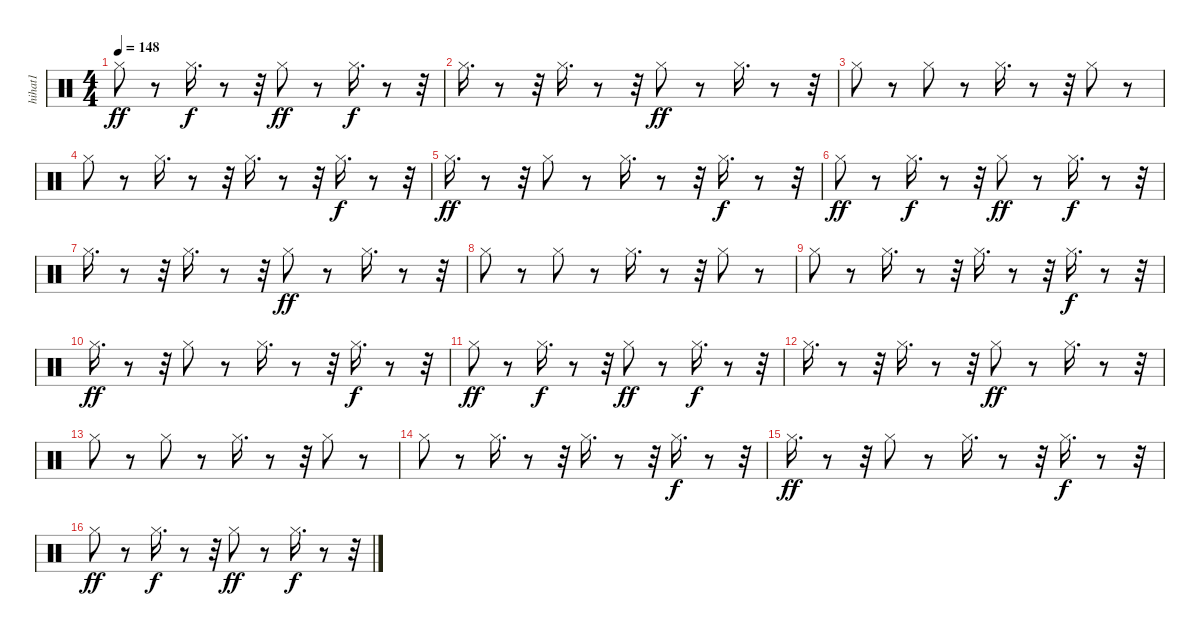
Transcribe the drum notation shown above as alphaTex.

\track ("hihat1              " "hihat1    ") {instrument percussion}
\staff {score}
\articulation defaults
\ts (4 4)
\tempo 148
\clef neutral
\ks c "Hi-Hat (closed)".8{dy ff}
r.8 "Hi-Hat (closed)".16{d dy f} r.8 r.32 "Hi-Hat (closed)".8{dy ff} r.8 "Hi-Hat (closed)".16{d dy f} r.8 r.32 |
"Hi-Hat (closed)".16{d} r.8 r.32 "Hi-Hat (closed)".16{d} r.8 r.32 "Hi-Hat (closed)".8{dy ff} r.8 "Hi-Hat (closed)".16{d} r.8 r.32 |
"Hi-Hat (closed)".8 r.8 "Hi-Hat (closed)".8 r.8 "Hi-Hat (closed)".16{d} r.8 r.32 "Hi-Hat (closed)".8 r.8 |
"Hi-Hat (closed)".8 r.8 "Hi-Hat (closed)".16{d} r.8 r.32 "Hi-Hat (closed)".16{d} r.8 r.32 "Hi-Hat (closed)".16{d dy f} r.8 r.32 |
"Hi-Hat (closed)".16{d dy ff} r.8 r.32 "Hi-Hat (closed)".8 r.8 "Hi-Hat (closed)".16{d} r.8 r.32 "Hi-Hat (closed)".16{d dy f} r.8 r.32 |
"Hi-Hat (closed)".8{dy ff} r.8 "Hi-Hat (closed)".16{d dy f} r.8 r.32 "Hi-Hat (closed)".8{dy ff} r.8 "Hi-Hat (closed)".16{d dy f} r.8 r.32 |
"Hi-Hat (closed)".16{d} r.8 r.32 "Hi-Hat (closed)".16{d} r.8 r.32 "Hi-Hat (closed)".8{dy ff} r.8 "Hi-Hat (closed)".16{d} r.8 r.32 |
"Hi-Hat (closed)".8 r.8 "Hi-Hat (closed)".8 r.8 "Hi-Hat (closed)".16{d} r.8 r.32 "Hi-Hat (closed)".8 r.8 |
"Hi-Hat (closed)".8 r.8 "Hi-Hat (closed)".16{d} r.8 r.32 "Hi-Hat (closed)".16{d} r.8 r.32 "Hi-Hat (closed)".16{d dy f} r.8 r.32 |
"Hi-Hat (closed)".16{d dy ff} r.8 r.32 "Hi-Hat (closed)".8 r.8 "Hi-Hat (closed)".16{d} r.8 r.32 "Hi-Hat (closed)".16{d dy f} r.8 r.32 |
"Hi-Hat (closed)".8{dy ff} r.8 "Hi-Hat (closed)".16{d dy f} r.8 r.32 "Hi-Hat (closed)".8{dy ff} r.8 "Hi-Hat (closed)".16{d dy f} r.8 r.32 |
"Hi-Hat (closed)".16{d} r.8 r.32 "Hi-Hat (closed)".16{d} r.8 r.32 "Hi-Hat (closed)".8{dy ff} r.8 "Hi-Hat (closed)".16{d} r.8 r.32 |
"Hi-Hat (closed)".8 r.8 "Hi-Hat (closed)".8 r.8 "Hi-Hat (closed)".16{d} r.8 r.32 "Hi-Hat (closed)".8 r.8 |
"Hi-Hat (closed)".8 r.8 "Hi-Hat (closed)".16{d} r.8 r.32 "Hi-Hat (closed)".16{d} r.8 r.32 "Hi-Hat (closed)".16{d dy f} r.8 r.32 |
"Hi-Hat (closed)".16{d dy ff} r.8 r.32 "Hi-Hat (closed)".8 r.8 "Hi-Hat (closed)".16{d} r.8 r.32 "Hi-Hat (closed)".16{d dy f} r.8 r.32 |
"Hi-Hat (closed)".8{dy ff} r.8 "Hi-Hat (closed)".16{d dy f} r.8 r.32 "Hi-Hat (closed)".8{dy ff} r.8 "Hi-Hat (closed)".16{d dy f} r.8 r.32
